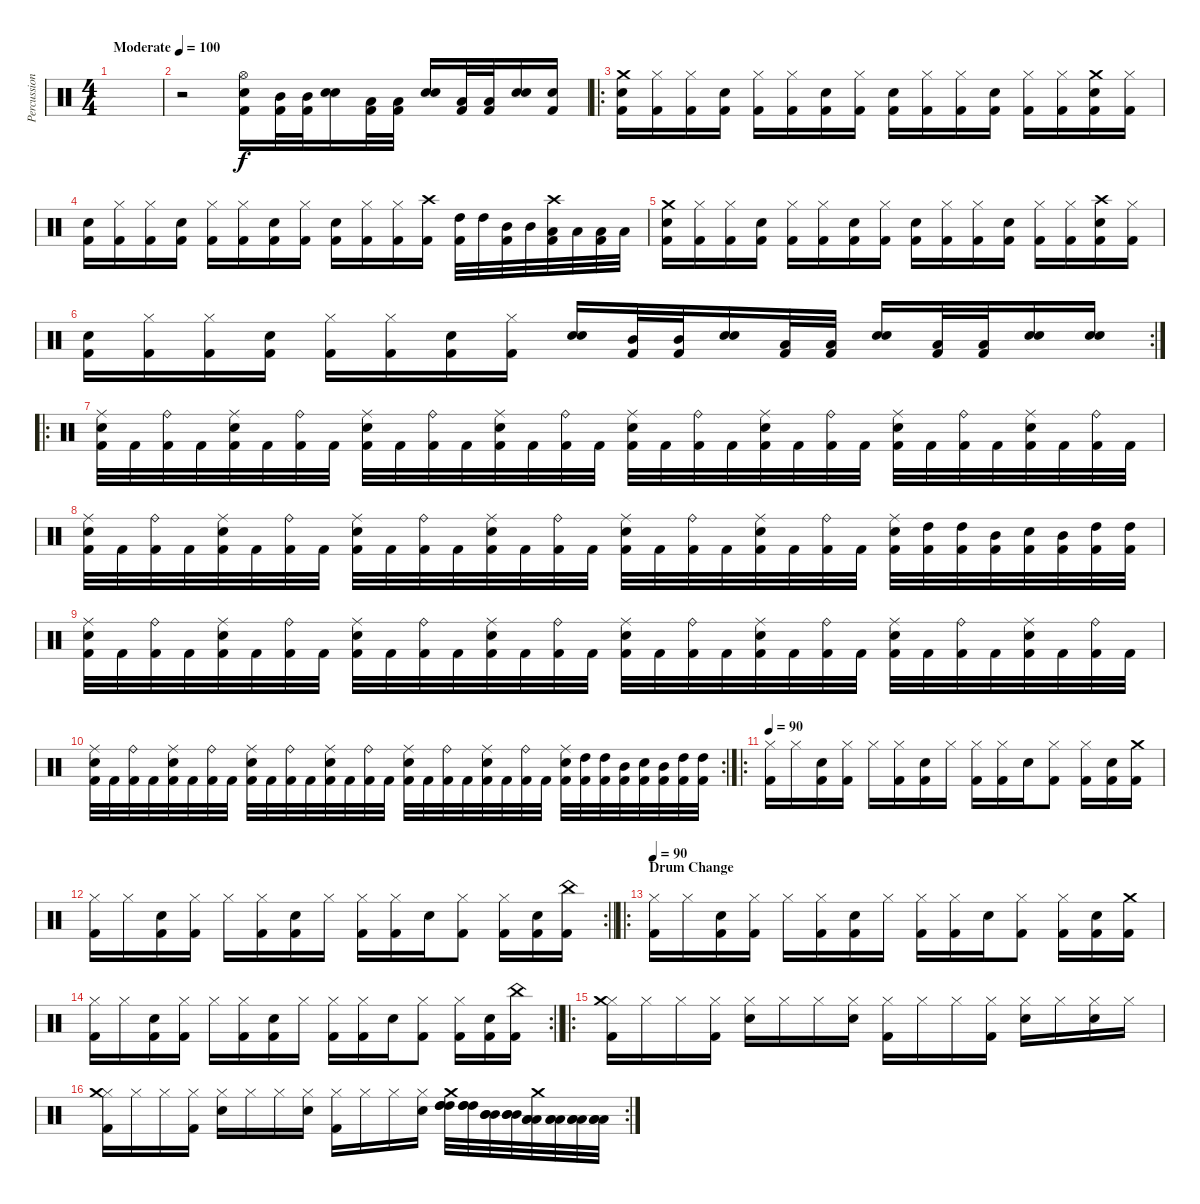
\track ("Percussions" "Percussion") {instrument percussion}
\staff {score}
\articulation defaults
\ts (4 4)
\tempo (100 "Moderate")
\clef neutral
\ks c
|
r.2 ("Snare (hit) 2" "Kick (hit) 2" "Hi-Hat (open)").16 ("Mid Tom (hit)" "Kick (hit) 2").32 ("Mid Tom (hit)" "Kick (hit) 2").32 ("Snare (hit) 2" "Snare (hit) 2").16 ("Low Tom (hit)" "Kick (hit) 2").32 ("Low Tom (hit)" "Kick (hit) 2").32 ("Snare (hit) 2" "Snare (hit) 2").16 ("Low Floor Tom (hit)" "Kick (hit) 2").32 ("Low Floor Tom (hit)" "Kick (hit) 2").32 ("Snare (hit) 2" "Snare (hit) 2").16 ("Snare (hit) 2" "Kick (hit) 2").16 |
\ro
("Crash medium (hit)" "Kick (hit) 2" "Snare (hit) 2").16 ("Kick (hit) 2" "Hi-Hat (closed)").16 ("Kick (hit) 2" "Hi-Hat (closed)").16 ("Kick (hit) 2" "Snare (hit) 2").16 ("Kick (hit) 2" "Hi-Hat (closed)").16 ("Kick (hit) 2" "Hi-Hat (closed)").16 ("Kick (hit) 2" "Snare (hit) 2").16 ("Kick (hit) 2" "Hi-Hat (closed)").16 ("Kick (hit) 2" "Snare (hit) 2").16 ("Kick (hit) 2" "Hi-Hat (closed)").16 ("Kick (hit) 2" "Hi-Hat (closed)").16 ("Kick (hit) 2" "Snare (hit) 2").16 ("Kick (hit) 2" "Hi-Hat (closed)").16 ("Kick (hit) 2" "Hi-Hat (closed)").16 ("Crash medium (hit)" "Kick (hit) 2" "Snare (hit) 2").16 ("Kick (hit) 2" "Hi-Hat (closed)").16 |
("Kick (hit) 2" "Snare (hit) 2").16 ("Kick (hit) 2" "Hi-Hat (closed)").16 ("Kick (hit) 2" "Hi-Hat (closed)").16 ("Kick (hit) 2" "Snare (hit) 2").16 ("Kick (hit) 2" "Hi-Hat (closed)").16 ("Kick (hit) 2" "Hi-Hat (closed)").16 ("Kick (hit) 2" "Snare (hit) 2").16 ("Kick (hit) 2" "Hi-Hat (closed)").16 ("Kick (hit) 2" "Snare (hit) 2").16 ("Kick (hit) 2" "Hi-Hat (closed)").16 ("Kick (hit) 2" "Hi-Hat (closed)").16 ("Kick (hit) 2" "Crash high (hit)").16 ("Kick (hit) 2" "High Tom (hit)").32 "High Tom (hit)".32 ("Kick (hit) 2" "Mid Tom (hit)").32 "Mid Tom (hit)".32 ("Crash high (hit)" "Kick (hit) 2" "Low Tom (hit)").32 "Low Tom (hit)".32 ("Kick (hit) 2" "Low Floor Tom (hit)").32 "Low Floor Tom (hit)".32 |
("Crash medium (hit)" "Kick (hit) 2" "Snare (hit) 2").16 ("Kick (hit) 2" "Hi-Hat (closed)").16 ("Kick (hit) 2" "Hi-Hat (closed)").16 ("Kick (hit) 2" "Snare (hit) 2").16 ("Kick (hit) 2" "Hi-Hat (closed)").16 ("Kick (hit) 2" "Hi-Hat (closed)").16 ("Kick (hit) 2" "Snare (hit) 2").16 ("Kick (hit) 2" "Hi-Hat (closed)").16 ("Kick (hit) 2" "Snare (hit) 2").16 ("Kick (hit) 2" "Hi-Hat (closed)").16 ("Kick (hit) 2" "Hi-Hat (closed)").16 ("Kick (hit) 2" "Snare (hit) 2").16 ("Kick (hit) 2" "Hi-Hat (closed)").16 ("Kick (hit) 2" "Hi-Hat (closed)").16 ("Crash high (hit)" "Kick (hit) 2" "Snare (hit) 2").16 ("Kick (hit) 2" "Hi-Hat (closed)").16 |
\rc 2
("Kick (hit) 2" "Snare (hit) 2").16 ("Kick (hit) 2" "Hi-Hat (closed)").16 ("Kick (hit) 2" "Hi-Hat (closed)").16 ("Kick (hit) 2" "Snare (hit) 2").16 ("Kick (hit) 2" "Hi-Hat (closed)").16 ("Kick (hit) 2" "Hi-Hat (closed)").16 ("Kick (hit) 2" "Snare (hit) 2").16 ("Kick (hit) 2" "Hi-Hat (closed)").16 ("Snare (hit) 2" "Snare (hit) 2").16 ("Mid Tom (hit)" "Kick (hit) 2").32 ("Mid Tom (hit)" "Kick (hit) 2").32 ("Snare (hit) 2" "Snare (hit) 2").16 ("Low Tom (hit)" "Kick (hit) 2").32 ("Low Tom (hit)" "Kick (hit) 2").32 ("Snare (hit) 2" "Snare (hit) 2").16 ("Low Floor Tom (hit)" "Kick (hit) 2").32 ("Low Floor Tom (hit)" "Kick (hit) 2").32 ("Snare (hit) 2" "Snare (hit) 2").16 ("Snare (hit) 2" "Snare (hit) 2").16 |
\ro
("Kick (hit) 2" "Snare (hit) 2" "Ride (middle)").32 "Kick (hit) 2".32 ("Kick (hit) 2" "Ride (bell)").32 "Kick (hit) 2".32 ("Kick (hit) 2" "Snare (hit) 2" "Ride (middle)").32 "Kick (hit) 2".32 ("Kick (hit) 2" "Ride (bell)").32 "Kick (hit) 2".32 ("Kick (hit) 2" "Snare (hit) 2" "Ride (middle)").32 "Kick (hit) 2".32 ("Kick (hit) 2" "Ride (bell)").32 "Kick (hit) 2".32 ("Kick (hit) 2" "Snare (hit) 2" "Ride (middle)").32 "Kick (hit) 2".32 ("Kick (hit) 2" "Ride (bell)").32 "Kick (hit) 2".32 ("Kick (hit) 2" "Snare (hit) 2" "Ride (middle)").32 "Kick (hit) 2".32 ("Kick (hit) 2" "Ride (bell)").32 "Kick (hit) 2".32 ("Kick (hit) 2" "Snare (hit) 2" "Ride (middle)").32 "Kick (hit) 2".32 ("Kick (hit) 2" "Ride (bell)").32 "Kick (hit) 2".32 ("Kick (hit) 2" "Snare (hit) 2" "Ride (middle)").32 "Kick (hit) 2".32 ("Kick (hit) 2" "Ride (bell)").32 "Kick (hit) 2".32 ("Kick (hit) 2" "Snare (hit) 2" "Ride (middle)").32 "Kick (hit) 2".32 ("Kick (hit) 2" "Ride (bell)").32 "Kick (hit) 2".32 |
("Kick (hit) 2" "Snare (hit) 2" "Ride (middle)").32 "Kick (hit) 2".32 ("Kick (hit) 2" "Ride (bell)").32 "Kick (hit) 2".32 ("Kick (hit) 2" "Snare (hit) 2" "Ride (middle)").32 "Kick (hit) 2".32 ("Kick (hit) 2" "Ride (bell)").32 "Kick (hit) 2".32 ("Kick (hit) 2" "Snare (hit) 2" "Ride (middle)").32 "Kick (hit) 2".32 ("Kick (hit) 2" "Ride (bell)").32 "Kick (hit) 2".32 ("Kick (hit) 2" "Snare (hit) 2" "Ride (middle)").32 "Kick (hit) 2".32 ("Kick (hit) 2" "Ride (bell)").32 "Kick (hit) 2".32 ("Kick (hit) 2" "Snare (hit) 2" "Ride (middle)").32 "Kick (hit) 2".32 ("Kick (hit) 2" "Ride (bell)").32 "Kick (hit) 2".32 ("Kick (hit) 2" "Snare (hit) 2" "Ride (middle)").32 "Kick (hit) 2".32 ("Kick (hit) 2" "Ride (bell)").32 "Kick (hit) 2".32 ("Kick (hit) 2" "Snare (hit) 2" "Ride (middle)").32 ("Kick (hit) 2" "High Tom (hit)").32 ("Kick (hit) 2" "High Tom (hit)").32 ("Kick (hit) 2" "Mid Tom (hit)").32 ("Kick (hit) 2" "Snare (hit) 2").32 ("Kick (hit) 2" "Mid Tom (hit)").32 ("Kick (hit) 2" "High Tom (hit)").32 ("Kick (hit) 2" "High Tom (hit)").32 |
("Kick (hit) 2" "Snare (hit) 2" "Ride (middle)").32 "Kick (hit) 2".32 ("Kick (hit) 2" "Ride (bell)").32 "Kick (hit) 2".32 ("Kick (hit) 2" "Snare (hit) 2" "Ride (middle)").32 "Kick (hit) 2".32 ("Kick (hit) 2" "Ride (bell)").32 "Kick (hit) 2".32 ("Kick (hit) 2" "Snare (hit) 2" "Ride (middle)").32 "Kick (hit) 2".32 ("Kick (hit) 2" "Ride (bell)").32 "Kick (hit) 2".32 ("Kick (hit) 2" "Snare (hit) 2" "Ride (middle)").32 "Kick (hit) 2".32 ("Kick (hit) 2" "Ride (bell)").32 "Kick (hit) 2".32 ("Kick (hit) 2" "Snare (hit) 2" "Ride (middle)").32 "Kick (hit) 2".32 ("Kick (hit) 2" "Ride (bell)").32 "Kick (hit) 2".32 ("Kick (hit) 2" "Snare (hit) 2" "Ride (middle)").32 "Kick (hit) 2".32 ("Kick (hit) 2" "Ride (bell)").32 "Kick (hit) 2".32 ("Kick (hit) 2" "Snare (hit) 2" "Ride (middle)").32 "Kick (hit) 2".32 ("Kick (hit) 2" "Ride (bell)").32 "Kick (hit) 2".32 ("Kick (hit) 2" "Snare (hit) 2" "Ride (middle)").32 "Kick (hit) 2".32 ("Kick (hit) 2" "Ride (bell)").32 "Kick (hit) 2".32 |
\rc 2
("Kick (hit) 2" "Snare (hit) 2" "Ride (middle)").32 "Kick (hit) 2".32 ("Kick (hit) 2" "Ride (bell)").32 "Kick (hit) 2".32 ("Kick (hit) 2" "Snare (hit) 2" "Ride (middle)").32 "Kick (hit) 2".32 ("Kick (hit) 2" "Ride (bell)").32 "Kick (hit) 2".32 ("Kick (hit) 2" "Snare (hit) 2" "Ride (middle)").32 "Kick (hit) 2".32 ("Kick (hit) 2" "Ride (bell)").32 "Kick (hit) 2".32 ("Kick (hit) 2" "Snare (hit) 2" "Ride (middle)").32 "Kick (hit) 2".32 ("Kick (hit) 2" "Ride (bell)").32 "Kick (hit) 2".32 ("Kick (hit) 2" "Snare (hit) 2" "Ride (middle)").32 "Kick (hit) 2".32 ("Kick (hit) 2" "Ride (bell)").32 "Kick (hit) 2".32 ("Kick (hit) 2" "Snare (hit) 2" "Ride (middle)").32 "Kick (hit) 2".32 ("Kick (hit) 2" "Ride (bell)").32 "Kick (hit) 2".32 ("Kick (hit) 2" "Snare (hit) 2" "Ride (middle)").32 ("Kick (hit) 2" "High Tom (hit)").32 ("Kick (hit) 2" "High Tom (hit)").32 ("Kick (hit) 2" "Mid Tom (hit)").32 ("Kick (hit) 2" "Snare (hit) 2").32 ("Kick (hit) 2" "Mid Tom (hit)").32 ("Kick (hit) 2" "High Tom (hit)").32 ("Kick (hit) 2" "High Tom (hit)").32 |
\ro
\tempo 90
("Hi-Hat (closed)" "Kick (hit) 2").16 "Hi-Hat (closed)".16 ("Snare (hit) 2" "Kick (hit) 2").16 ("Hi-Hat (closed)" "Kick (hit) 2").16 "Hi-Hat (closed)".16 ("Hi-Hat (closed)" "Kick (hit) 2").16 ("Snare (hit) 2" "Kick (hit) 2").16 "Hi-Hat (closed)".16 ("Hi-Hat (closed)" "Kick (hit) 2").16 ("Hi-Hat (closed)" "Kick (hit) 2").16 "Snare (hit) 2".16 ("Hi-Hat (closed)" "Kick (hit) 2").8 ("Hi-Hat (closed)" "Kick (hit) 2").16 ("Snare (hit) 2" "Kick (hit) 2").16 ("Crash medium (hit)" "Kick (hit) 2").16 |
\rc 2
\barLineRight lightlight
("Hi-Hat (closed)" "Kick (hit) 2").16 "Hi-Hat (closed)".16 ("Snare (hit) 2" "Kick (hit) 2").16 ("Hi-Hat (closed)" "Kick (hit) 2").16 "Hi-Hat (closed)".16 ("Hi-Hat (closed)" "Kick (hit) 2").16 ("Snare (hit) 2" "Kick (hit) 2").16 "Hi-Hat (closed)".16 ("Hi-Hat (closed)" "Kick (hit) 2").16 ("Hi-Hat (closed)" "Kick (hit) 2").16 "Snare (hit) 2".16 ("Hi-Hat (closed)" "Kick (hit) 2").8 ("Hi-Hat (closed)" "Kick (hit) 2").16 ("Snare (hit) 2" "Kick (hit) 2").16 ("China (hit)" "Kick (hit) 2").16 |
\ro
\section ("" "Drum Change")
\tempo 90
("Hi-Hat (closed)" "Kick (hit) 2").16 "Hi-Hat (closed)".16 ("Snare (hit) 2" "Kick (hit) 2").16 ("Hi-Hat (closed)" "Kick (hit) 2").16 "Hi-Hat (closed)".16 ("Hi-Hat (closed)" "Kick (hit) 2").16 ("Snare (hit) 2" "Kick (hit) 2").16 "Hi-Hat (closed)".16 ("Hi-Hat (closed)" "Kick (hit) 2").16 ("Hi-Hat (closed)" "Kick (hit) 2").16 "Snare (hit) 2".16 ("Hi-Hat (closed)" "Kick (hit) 2").8 ("Hi-Hat (closed)" "Kick (hit) 2").16 ("Snare (hit) 2" "Kick (hit) 2").16 ("Crash medium (hit)" "Kick (hit) 2").16 |
\rc 2
\barLineRight lightlight
("Hi-Hat (closed)" "Kick (hit) 2").16 "Hi-Hat (closed)".16 ("Snare (hit) 2" "Kick (hit) 2").16 ("Hi-Hat (closed)" "Kick (hit) 2").16 "Hi-Hat (closed)".16 ("Hi-Hat (closed)" "Kick (hit) 2").16 ("Snare (hit) 2" "Kick (hit) 2").16 "Hi-Hat (closed)".16 ("Hi-Hat (closed)" "Kick (hit) 2").16 ("Hi-Hat (closed)" "Kick (hit) 2").16 "Snare (hit) 2".16 ("Hi-Hat (closed)" "Kick (hit) 2").8 ("Hi-Hat (closed)" "Kick (hit) 2").16 ("Snare (hit) 2" "Kick (hit) 2").16 ("China (hit)" "Kick (hit) 2").16 |
\ro
("Hi-Hat (closed)" "Kick (hit) 2" "Crash medium (hit)").16 "Hi-Hat (closed)".16 "Hi-Hat (closed)".16 ("Hi-Hat (closed)" "Kick (hit) 2").16 ("Hi-Hat (closed)" "Snare (hit) 2").16 "Hi-Hat (closed)".16 "Hi-Hat (closed)".16 ("Hi-Hat (closed)" "Snare (hit) 2").16 ("Hi-Hat (closed)" "Kick (hit) 2").16 "Hi-Hat (closed)".16 "Hi-Hat (closed)".16 ("Hi-Hat (closed)" "Kick (hit) 2").16 ("Hi-Hat (closed)" "Snare (hit) 2").16 "Hi-Hat (closed)".16 ("Hi-Hat (closed)" "Snare (hit) 2").16 "Hi-Hat (closed)".16 |
\rc 2
("Hi-Hat (closed)" "Kick (hit) 2" "Crash medium (hit)").16 "Hi-Hat (closed)".16 "Hi-Hat (closed)".16 ("Hi-Hat (closed)" "Kick (hit) 2").16 ("Hi-Hat (closed)" "Snare (hit) 2").16 "Hi-Hat (closed)".16 "Hi-Hat (closed)".16 ("Hi-Hat (closed)" "Snare (hit) 2").16 ("Hi-Hat (closed)" "Kick (hit) 2").16 "Hi-Hat (closed)".16 "Hi-Hat (closed)".16 ("Hi-Hat (closed)" "Snare (hit) 2").16 ("Crash medium (hit)" "High Tom (hit)" "High Tom (hit)" "High Tom (hit)").32 ("High Tom (hit)" "High Tom (hit)" "High Tom (hit)").32 ("Mid Tom (hit)" "Mid Tom (hit)" "Mid Tom (hit)").32 ("Mid Tom (hit)" "Mid Tom (hit)" "Mid Tom (hit)").32 ("Crash medium (hit)" "Low Tom (hit)" "Low Tom (hit)" "Low Tom (hit)").32 ("Low Tom (hit)" "Low Tom (hit)" "Low Tom (hit)").32 ("Low Floor Tom (hit)" "Low Floor Tom (hit)" "Low Floor Tom (hit)").32 ("Low Floor Tom (hit)" "Low Floor Tom (hit)" "Low Floor Tom (hit)").32
